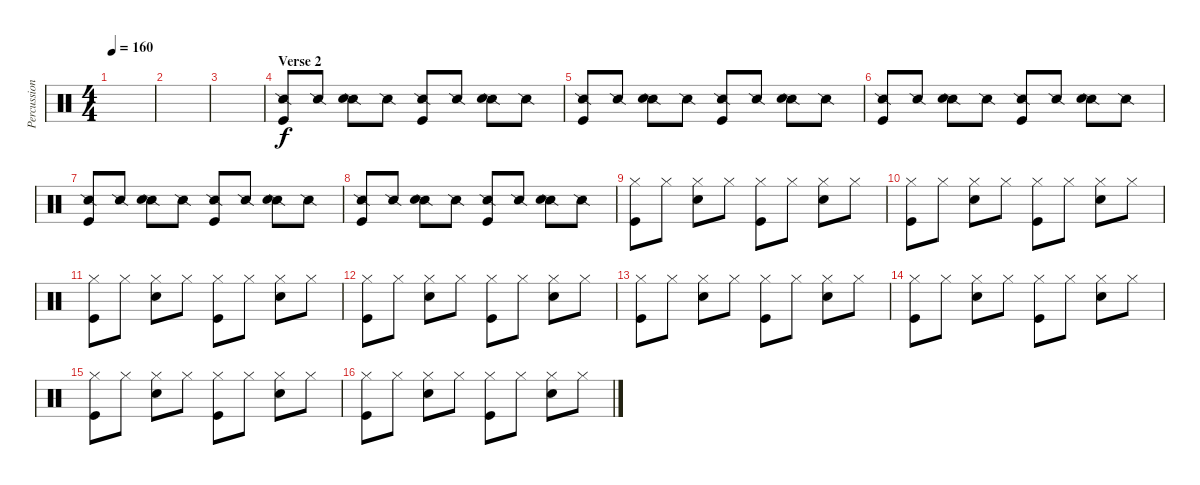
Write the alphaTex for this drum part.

\track ("Percussion" "Percussion") {instrument percussion}
\staff {score}
\articulation defaults
\ts (4 4)
\tempo 160
\clef neutral
\ks c
|
|
|
\section ("" "Verse 2")
("Snare (side stick) 2" "Kick (hit)").8 "Snare (side stick) 2".8 ("Snare (side stick) 2" "Snare (hit) 2").8 "Snare (side stick) 2".8 ("Snare (side stick) 2" "Kick (hit)").8 "Snare (side stick) 2".8 ("Snare (side stick) 2" "Snare (hit) 2").8 "Snare (side stick) 2".8 |
("Snare (side stick) 2" "Kick (hit)").8 "Snare (side stick) 2".8 ("Snare (side stick) 2" "Snare (hit) 2").8 "Snare (side stick) 2".8 ("Snare (side stick) 2" "Kick (hit)").8 "Snare (side stick) 2".8 ("Snare (side stick) 2" "Snare (hit) 2").8 "Snare (side stick) 2".8 |
("Snare (side stick) 2" "Kick (hit)").8 "Snare (side stick) 2".8 ("Snare (side stick) 2" "Snare (hit) 2").8 "Snare (side stick) 2".8 ("Snare (side stick) 2" "Kick (hit)").8 "Snare (side stick) 2".8 ("Snare (side stick) 2" "Snare (hit) 2").8 "Snare (side stick) 2".8 |
("Snare (side stick) 2" "Kick (hit)").8 "Snare (side stick) 2".8 ("Snare (side stick) 2" "Snare (hit) 2").8 "Snare (side stick) 2".8 ("Snare (side stick) 2" "Kick (hit)").8 "Snare (side stick) 2".8 ("Snare (side stick) 2" "Snare (hit) 2").8 "Snare (side stick) 2".8 |
("Snare (side stick) 2" "Kick (hit)").8 "Snare (side stick) 2".8 ("Snare (side stick) 2" "Snare (hit) 2").8 "Snare (side stick) 2".8 ("Snare (side stick) 2" "Kick (hit)").8 "Snare (side stick) 2".8 ("Snare (side stick) 2" "Snare (hit) 2").8 "Snare (side stick) 2".8 |
("Hi-Hat (closed)" "Kick (hit)").8 "Hi-Hat (closed)".8 ("Hi-Hat (closed)" "Snare (hit) 2").8 "Hi-Hat (closed)".8 ("Hi-Hat (closed)" "Kick (hit)").8 "Hi-Hat (closed)".8 ("Hi-Hat (closed)" "Snare (hit) 2").8 "Hi-Hat (closed)".8 |
("Hi-Hat (closed)" "Kick (hit)").8 "Hi-Hat (closed)".8 ("Hi-Hat (closed)" "Snare (hit) 2").8 "Hi-Hat (closed)".8 ("Hi-Hat (closed)" "Kick (hit)").8 "Hi-Hat (closed)".8 ("Hi-Hat (closed)" "Snare (hit) 2").8 "Hi-Hat (closed)".8 |
("Hi-Hat (closed)" "Kick (hit)").8 "Hi-Hat (closed)".8 ("Hi-Hat (closed)" "Snare (hit) 2").8 "Hi-Hat (closed)".8 ("Hi-Hat (closed)" "Kick (hit)").8 "Hi-Hat (closed)".8 ("Hi-Hat (closed)" "Snare (hit) 2").8 "Hi-Hat (closed)".8 |
("Hi-Hat (closed)" "Kick (hit)").8 "Hi-Hat (closed)".8 ("Hi-Hat (closed)" "Snare (hit) 2").8 "Hi-Hat (closed)".8 ("Hi-Hat (closed)" "Kick (hit)").8 "Hi-Hat (closed)".8 ("Hi-Hat (closed)" "Snare (hit) 2").8 "Hi-Hat (closed)".8 |
("Hi-Hat (closed)" "Kick (hit)").8 "Hi-Hat (closed)".8 ("Hi-Hat (closed)" "Snare (hit) 2").8 "Hi-Hat (closed)".8 ("Hi-Hat (closed)" "Kick (hit)").8 "Hi-Hat (closed)".8 ("Hi-Hat (closed)" "Snare (hit) 2").8 "Hi-Hat (closed)".8 |
("Hi-Hat (closed)" "Kick (hit)").8 "Hi-Hat (closed)".8 ("Hi-Hat (closed)" "Snare (hit) 2").8 "Hi-Hat (closed)".8 ("Hi-Hat (closed)" "Kick (hit)").8 "Hi-Hat (closed)".8 ("Hi-Hat (closed)" "Snare (hit) 2").8 "Hi-Hat (closed)".8 |
("Hi-Hat (closed)" "Kick (hit)").8 "Hi-Hat (closed)".8 ("Hi-Hat (closed)" "Snare (hit) 2").8 "Hi-Hat (closed)".8 ("Hi-Hat (closed)" "Kick (hit)").8 "Hi-Hat (closed)".8 ("Hi-Hat (closed)" "Snare (hit) 2").8 "Hi-Hat (closed)".8 |
("Hi-Hat (closed)" "Kick (hit)").8 "Hi-Hat (closed)".8 ("Hi-Hat (closed)" "Snare (hit) 2").8 "Hi-Hat (closed)".8 ("Hi-Hat (closed)" "Kick (hit)").8 "Hi-Hat (closed)".8 ("Hi-Hat (closed)" "Snare (hit) 2").8 "Hi-Hat (closed)".8
